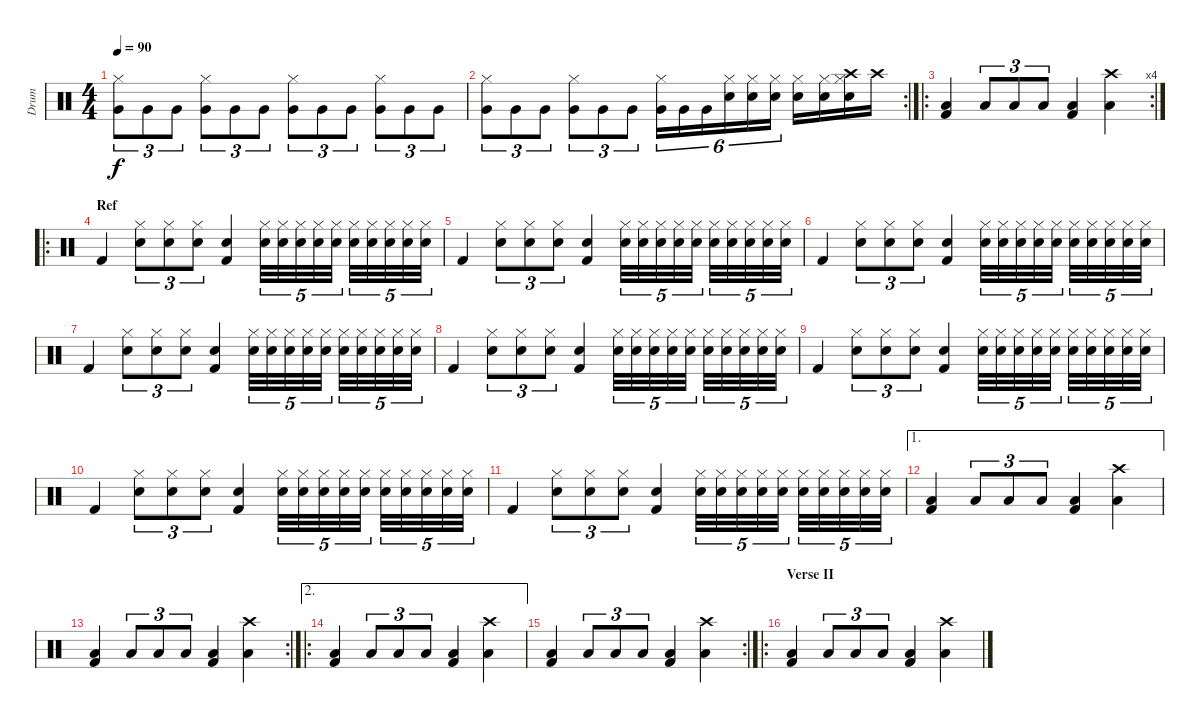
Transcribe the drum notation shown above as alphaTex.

\track ("Drum" "Drum") {instrument percussion}
\staff {score}
\articulation defaults
\ts (4 4)
\tempo 90
\clef neutral
\ks c
("Very Low Tom (hit)" "Hi-Hat (closed)").8{tu (3 2) dy f} "Very Low Tom (hit)".8{tu (3 2)} "Very Low Tom (hit)".8{tu (3 2)} ("Very Low Tom (hit)" "Hi-Hat (closed)").8{tu (3 2)} "Very Low Tom (hit)".8{tu (3 2)} "Very Low Tom (hit)".8{tu (3 2)} ("Very Low Tom (hit)" "Hi-Hat (closed)").8{tu (3 2)} "Very Low Tom (hit)".8{tu (3 2)} "Very Low Tom (hit)".8{tu (3 2)} ("Very Low Tom (hit)" "Hi-Hat (closed)").8{tu (3 2)} "Very Low Tom (hit)".8{tu (3 2)} "Very Low Tom (hit)".8{tu (3 2)} |
\rc 2
("Very Low Tom (hit)" "Hi-Hat (closed)").8{tu (3 2)} "Very Low Tom (hit)".8{tu (3 2)} "Very Low Tom (hit)".8{tu (3 2)} ("Very Low Tom (hit)" "Hi-Hat (closed)").8{tu (3 2)} "Very Low Tom (hit)".8{tu (3 2)} "Very Low Tom (hit)".8{tu (3 2)} ("Very Low Tom (hit)" "Hi-Hat (closed)").16{tu (6 4)} "Very Low Tom (hit)".16{tu (6 4)} "Very Low Tom (hit)".16{tu (6 4)} ("Snare (hit) 2" "Hi-Hat (closed)").16{tu (6 4)} ("Snare (hit) 2" "Hi-Hat (closed)").16{tu (6 4)} ("Snare (hit) 2" "Hi-Hat (closed)").16{tu (6 4)} ("Snare (hit) 2" "Hi-Hat (closed)").16 ("Snare (hit) 2" "Hi-Hat (closed)").16 ("Snare (hit) 2" "Hi-Hat (closed)" "Crash high (hit)").16 "Crash high (hit)".16 |
\ro
\rc 4
("Kick (hit) 2" "Low Floor Tom (hit)").4 "Low Floor Tom (hit)".8{tu (3 2)} "Low Floor Tom (hit)".8{tu (3 2)} "Low Floor Tom (hit)".8{tu (3 2)} ("Kick (hit) 2" "Low Floor Tom (hit)").4 ("Low Floor Tom (hit)" "Crash high (hit)").4 |
\ro
\section ("" "Ref")
"Kick (hit) 2".4 ("Snare (hit) 2" "Hi-Hat (closed)").8{tu (3 2)} ("Snare (hit) 2" "Hi-Hat (closed)").8{tu (3 2)} ("Snare (hit) 2" "Hi-Hat (closed)").8{tu (3 2)} ("Kick (hit) 2" "Snare (hit) 2").4 ("Snare (hit) 2" "Hi-Hat (closed)").32{tu (5 4)} ("Snare (hit) 2" "Hi-Hat (closed)").32{tu (5 4)} ("Snare (hit) 2" "Hi-Hat (closed)").32{tu (5 4)} ("Snare (hit) 2" "Hi-Hat (closed)").32{tu (5 4)} ("Snare (hit) 2" "Hi-Hat (closed)").32{tu (5 4)} ("Snare (hit) 2" "Hi-Hat (closed)").32{tu (5 4)} ("Snare (hit) 2" "Hi-Hat (closed)").32{tu (5 4)} ("Snare (hit) 2" "Hi-Hat (closed)").32{tu (5 4)} ("Snare (hit) 2" "Hi-Hat (closed)").32{tu (5 4)} ("Snare (hit) 2" "Hi-Hat (closed)").32{tu (5 4)} |
"Kick (hit) 2".4 ("Snare (hit) 2" "Hi-Hat (closed)").8{tu (3 2)} ("Snare (hit) 2" "Hi-Hat (closed)").8{tu (3 2)} ("Snare (hit) 2" "Hi-Hat (closed)").8{tu (3 2)} ("Kick (hit) 2" "Snare (hit) 2").4 ("Snare (hit) 2" "Hi-Hat (closed)").32{tu (5 4)} ("Snare (hit) 2" "Hi-Hat (closed)").32{tu (5 4)} ("Snare (hit) 2" "Hi-Hat (closed)").32{tu (5 4)} ("Snare (hit) 2" "Hi-Hat (closed)").32{tu (5 4)} ("Snare (hit) 2" "Hi-Hat (closed)").32{tu (5 4)} ("Snare (hit) 2" "Hi-Hat (closed)").32{tu (5 4)} ("Snare (hit) 2" "Hi-Hat (closed)").32{tu (5 4)} ("Snare (hit) 2" "Hi-Hat (closed)").32{tu (5 4)} ("Snare (hit) 2" "Hi-Hat (closed)").32{tu (5 4)} ("Snare (hit) 2" "Hi-Hat (closed)").32{tu (5 4)} |
"Kick (hit) 2".4 ("Snare (hit) 2" "Hi-Hat (closed)").8{tu (3 2)} ("Snare (hit) 2" "Hi-Hat (closed)").8{tu (3 2)} ("Snare (hit) 2" "Hi-Hat (closed)").8{tu (3 2)} ("Kick (hit) 2" "Snare (hit) 2").4 ("Snare (hit) 2" "Hi-Hat (closed)").32{tu (5 4)} ("Snare (hit) 2" "Hi-Hat (closed)").32{tu (5 4)} ("Snare (hit) 2" "Hi-Hat (closed)").32{tu (5 4)} ("Snare (hit) 2" "Hi-Hat (closed)").32{tu (5 4)} ("Snare (hit) 2" "Hi-Hat (closed)").32{tu (5 4)} ("Snare (hit) 2" "Hi-Hat (closed)").32{tu (5 4)} ("Snare (hit) 2" "Hi-Hat (closed)").32{tu (5 4)} ("Snare (hit) 2" "Hi-Hat (closed)").32{tu (5 4)} ("Snare (hit) 2" "Hi-Hat (closed)").32{tu (5 4)} ("Snare (hit) 2" "Hi-Hat (closed)").32{tu (5 4)} |
"Kick (hit) 2".4 ("Snare (hit) 2" "Hi-Hat (closed)").8{tu (3 2)} ("Snare (hit) 2" "Hi-Hat (closed)").8{tu (3 2)} ("Snare (hit) 2" "Hi-Hat (closed)").8{tu (3 2)} ("Kick (hit) 2" "Snare (hit) 2").4 ("Snare (hit) 2" "Hi-Hat (closed)").32{tu (5 4)} ("Snare (hit) 2" "Hi-Hat (closed)").32{tu (5 4)} ("Snare (hit) 2" "Hi-Hat (closed)").32{tu (5 4)} ("Snare (hit) 2" "Hi-Hat (closed)").32{tu (5 4)} ("Snare (hit) 2" "Hi-Hat (closed)").32{tu (5 4)} ("Snare (hit) 2" "Hi-Hat (closed)").32{tu (5 4)} ("Snare (hit) 2" "Hi-Hat (closed)").32{tu (5 4)} ("Snare (hit) 2" "Hi-Hat (closed)").32{tu (5 4)} ("Snare (hit) 2" "Hi-Hat (closed)").32{tu (5 4)} ("Snare (hit) 2" "Hi-Hat (closed)").32{tu (5 4)} |
"Kick (hit) 2".4 ("Snare (hit) 2" "Hi-Hat (closed)").8{tu (3 2)} ("Snare (hit) 2" "Hi-Hat (closed)").8{tu (3 2)} ("Snare (hit) 2" "Hi-Hat (closed)").8{tu (3 2)} ("Kick (hit) 2" "Snare (hit) 2").4 ("Snare (hit) 2" "Hi-Hat (closed)").32{tu (5 4)} ("Snare (hit) 2" "Hi-Hat (closed)").32{tu (5 4)} ("Snare (hit) 2" "Hi-Hat (closed)").32{tu (5 4)} ("Snare (hit) 2" "Hi-Hat (closed)").32{tu (5 4)} ("Snare (hit) 2" "Hi-Hat (closed)").32{tu (5 4)} ("Snare (hit) 2" "Hi-Hat (closed)").32{tu (5 4)} ("Snare (hit) 2" "Hi-Hat (closed)").32{tu (5 4)} ("Snare (hit) 2" "Hi-Hat (closed)").32{tu (5 4)} ("Snare (hit) 2" "Hi-Hat (closed)").32{tu (5 4)} ("Snare (hit) 2" "Hi-Hat (closed)").32{tu (5 4)} |
"Kick (hit) 2".4 ("Snare (hit) 2" "Hi-Hat (closed)").8{tu (3 2)} ("Snare (hit) 2" "Hi-Hat (closed)").8{tu (3 2)} ("Snare (hit) 2" "Hi-Hat (closed)").8{tu (3 2)} ("Kick (hit) 2" "Snare (hit) 2").4 ("Snare (hit) 2" "Hi-Hat (closed)").32{tu (5 4)} ("Snare (hit) 2" "Hi-Hat (closed)").32{tu (5 4)} ("Snare (hit) 2" "Hi-Hat (closed)").32{tu (5 4)} ("Snare (hit) 2" "Hi-Hat (closed)").32{tu (5 4)} ("Snare (hit) 2" "Hi-Hat (closed)").32{tu (5 4)} ("Snare (hit) 2" "Hi-Hat (closed)").32{tu (5 4)} ("Snare (hit) 2" "Hi-Hat (closed)").32{tu (5 4)} ("Snare (hit) 2" "Hi-Hat (closed)").32{tu (5 4)} ("Snare (hit) 2" "Hi-Hat (closed)").32{tu (5 4)} ("Snare (hit) 2" "Hi-Hat (closed)").32{tu (5 4)} |
"Kick (hit) 2".4 ("Snare (hit) 2" "Hi-Hat (closed)").8{tu (3 2)} ("Snare (hit) 2" "Hi-Hat (closed)").8{tu (3 2)} ("Snare (hit) 2" "Hi-Hat (closed)").8{tu (3 2)} ("Kick (hit) 2" "Snare (hit) 2").4 ("Snare (hit) 2" "Hi-Hat (closed)").32{tu (5 4)} ("Snare (hit) 2" "Hi-Hat (closed)").32{tu (5 4)} ("Snare (hit) 2" "Hi-Hat (closed)").32{tu (5 4)} ("Snare (hit) 2" "Hi-Hat (closed)").32{tu (5 4)} ("Snare (hit) 2" "Hi-Hat (closed)").32{tu (5 4)} ("Snare (hit) 2" "Hi-Hat (closed)").32{tu (5 4)} ("Snare (hit) 2" "Hi-Hat (closed)").32{tu (5 4)} ("Snare (hit) 2" "Hi-Hat (closed)").32{tu (5 4)} ("Snare (hit) 2" "Hi-Hat (closed)").32{tu (5 4)} ("Snare (hit) 2" "Hi-Hat (closed)").32{tu (5 4)} |
"Kick (hit) 2".4 ("Snare (hit) 2" "Hi-Hat (closed)").8{tu (3 2)} ("Snare (hit) 2" "Hi-Hat (closed)").8{tu (3 2)} ("Snare (hit) 2" "Hi-Hat (closed)").8{tu (3 2)} ("Kick (hit) 2" "Snare (hit) 2").4 ("Snare (hit) 2" "Hi-Hat (closed)").32{tu (5 4)} ("Snare (hit) 2" "Hi-Hat (closed)").32{tu (5 4)} ("Snare (hit) 2" "Hi-Hat (closed)").32{tu (5 4)} ("Snare (hit) 2" "Hi-Hat (closed)").32{tu (5 4)} ("Snare (hit) 2" "Hi-Hat (closed)").32{tu (5 4)} ("Snare (hit) 2" "Hi-Hat (closed)").32{tu (5 4)} ("Snare (hit) 2" "Hi-Hat (closed)").32{tu (5 4)} ("Snare (hit) 2" "Hi-Hat (closed)").32{tu (5 4)} ("Snare (hit) 2" "Hi-Hat (closed)").32{tu (5 4)} ("Snare (hit) 2" "Hi-Hat (closed)").32{tu (5 4)} |
\ae 1
("Kick (hit) 2" "Low Floor Tom (hit)").4 "Low Floor Tom (hit)".8{tu (3 2)} "Low Floor Tom (hit)".8{tu (3 2)} "Low Floor Tom (hit)".8{tu (3 2)} ("Kick (hit) 2" "Low Floor Tom (hit)").4 ("Low Floor Tom (hit)" "Crash high (hit)").4 |
\rc 2
("Kick (hit) 2" "Low Floor Tom (hit)").4 "Low Floor Tom (hit)".8{tu (3 2)} "Low Floor Tom (hit)".8{tu (3 2)} "Low Floor Tom (hit)".8{tu (3 2)} ("Kick (hit) 2" "Low Floor Tom (hit)").4 ("Low Floor Tom (hit)" "Crash high (hit)").4 |
\ae 2
\ro
("Kick (hit) 2" "Low Floor Tom (hit)").4 "Low Floor Tom (hit)".8{tu (3 2)} "Low Floor Tom (hit)".8{tu (3 2)} "Low Floor Tom (hit)".8{tu (3 2)} ("Kick (hit) 2" "Low Floor Tom (hit)").4 ("Low Floor Tom (hit)" "Crash high (hit)").4 |
\rc 2
("Kick (hit) 2" "Low Floor Tom (hit)").4 "Low Floor Tom (hit)".8{tu (3 2)} "Low Floor Tom (hit)".8{tu (3 2)} "Low Floor Tom (hit)".8{tu (3 2)} ("Kick (hit) 2" "Low Floor Tom (hit)").4 ("Low Floor Tom (hit)" "Crash high (hit)").4 |
\ro
\section ("" "Verse II")
("Kick (hit) 2" "Low Floor Tom (hit)").4 "Low Floor Tom (hit)".8{tu (3 2)} "Low Floor Tom (hit)".8{tu (3 2)} "Low Floor Tom (hit)".8{tu (3 2)} ("Kick (hit) 2" "Low Floor Tom (hit)").4 ("Low Floor Tom (hit)" "Crash high (hit)").4
